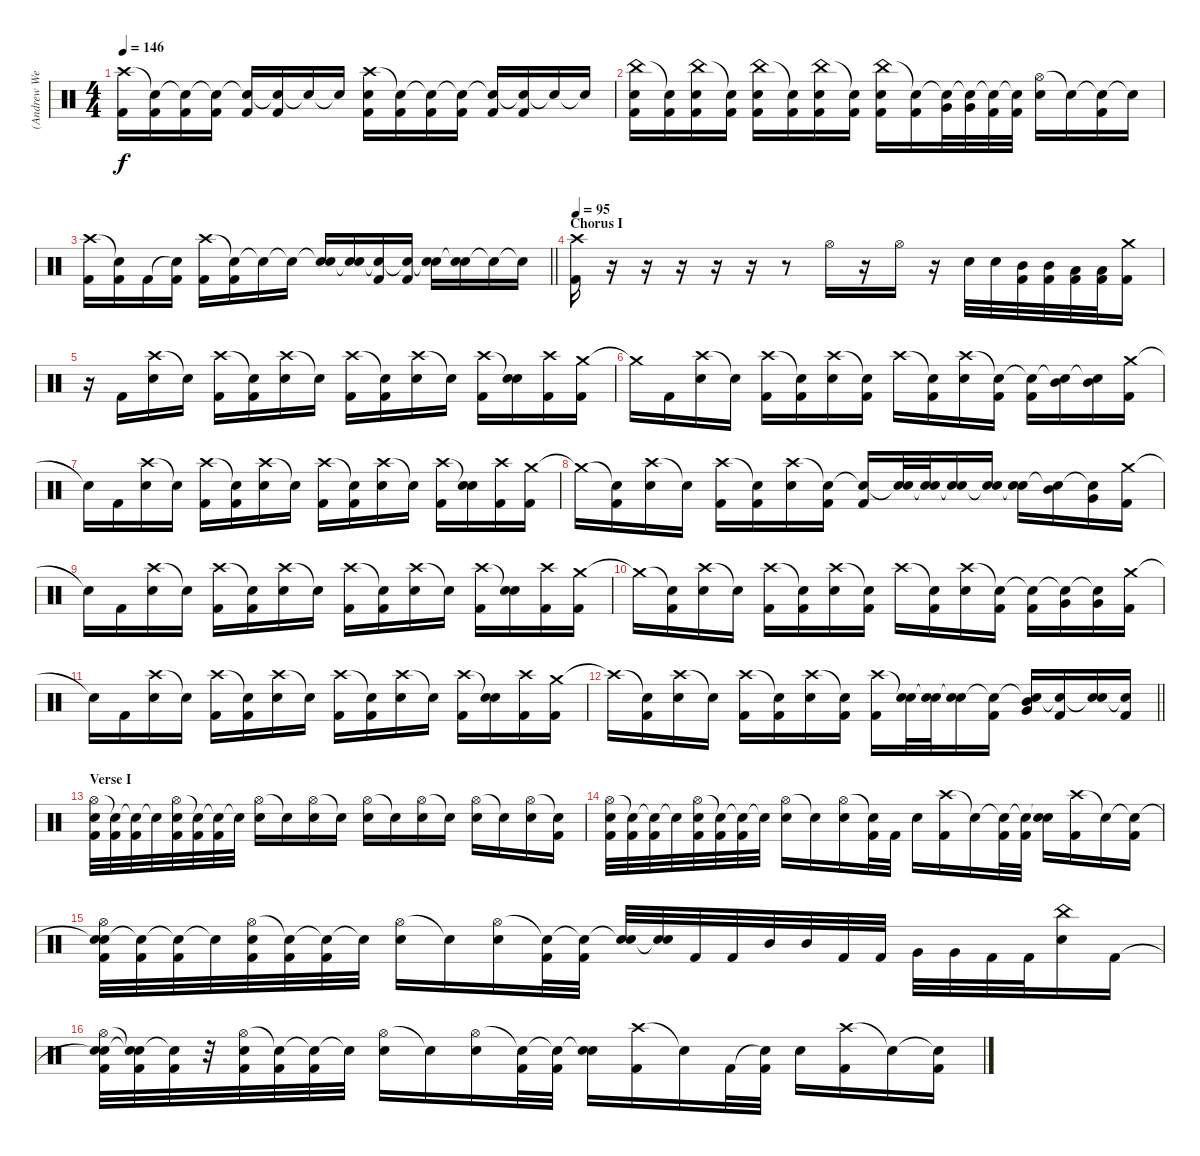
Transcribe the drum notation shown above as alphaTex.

\track ("(Andrew Wetzel) Drums" "(Andrew We") {instrument percussion}
\staff {score}
\articulation defaults
\ts (4 4)
\tempo 146
\clef neutral
\ks c
("Crash high (hit)" "Kick (hit) 2").16{dy f} ("Snare (hit)"{t} "Kick (hit) 2").16 ("Snare (hit)"{t} "Kick (hit) 2").16 ("Snare (hit)"{t} "Kick (hit) 2").16 ("Snare (hit)"{t} "Kick (hit) 2").16 ("Snare (hit)"{t} "Kick (hit) 2").16 "Snare (hit)"{t}.16 "Snare (hit)"{t}.16 ("Crash high (hit)" "Electric Snare (hit)" "Kick (hit) 2").16 ("Snare (hit)"{t} "Kick (hit) 2").16 ("Snare (hit)"{t} "Kick (hit) 2").16 ("Snare (hit)"{t} "Kick (hit) 2").16 ("Snare (hit)"{t} "Kick (hit) 2").16 ("Snare (hit)"{t} "Kick (hit) 2").16 "Snare (hit)"{t}.16 "Snare (hit)"{t}.16 |
("China (hit)" "Electric Snare (hit)" "Kick (hit) 2").16 ("Snare (hit)"{t} "Kick (hit) 2").16 ("China (hit)" "Electric Snare (hit)" "Kick (hit) 2").16 ("Snare (hit)"{t} "Kick (hit) 2").16 ("China (hit)" "Electric Snare (hit)" "Kick (hit) 2").16 ("Snare (hit)"{t} "Kick (hit) 2").16 ("China (hit)" "Electric Snare (hit)" "Kick (hit) 2").16 ("Snare (hit)"{t} "Kick (hit) 2").16 ("China (hit)" "Electric Snare (hit)" "Kick (hit) 2").16 ("Snare (hit)"{t} "Kick (hit) 2").16 ("Snare (hit)"{t} "Very Low Tom (hit)").32 ("Snare (hit)"{t} "Very Low Tom (hit)").32 ("Snare (hit)"{t} "Kick (hit) 2").32 ("Snare (hit)"{t} "Kick (hit) 2").32 ("Hi-Hat (open)" "Electric Snare (hit)").16 "Snare (hit)"{t}.16 ("Snare (hit)"{t} "Kick (hit) 2").16 "Snare (hit)"{t}.16 |
\barLineRight lightlight
("Crash high (hit)" "Kick (hit) 2").16 ("Snare (hit)"{t} "Kick (hit) 2").16 "Kick (hit) 2".16 ("Snare (hit)"{t} "Kick (hit) 2").16 ("Crash high (hit)" "Kick (hit) 2").16 ("Snare (hit)"{t} "Kick (hit) 2").16 "Snare (hit)"{t}.16 "Snare (hit)"{t}.16 ("Snare (hit)"{t} "Electric Snare (hit)").16 ("Snare (hit)"{t} "Electric Snare (hit)").16 ("Snare (hit)"{t} "Kick (hit) 2").16 ("Snare (hit)"{t} "Kick (hit) 2").16 ("Snare (hit)"{t} "Electric Snare (hit)").16 ("Snare (hit)"{t} "Electric Snare (hit)").16 "Snare (hit)"{t}.16 "Snare (hit)"{t}.16 |
\section ("" "Chorus I")
\tempo 95
("Crash high (hit)" "Kick (hit) 2").16 r.16 r.16 r.16 r.16 r.16 r.8 "Hi-Hat (open)".16 r.16 "Hi-Hat (open)".16 r.16 "Electric Snare (hit)".32 "Electric Snare (hit)".32 ("Mid Tom (hit)" "Kick (hit) 2").32 ("Mid Tom (hit)" "Kick (hit) 2").32 ("Low Floor Tom (hit)" "Kick (hit) 2").32 ("Low Floor Tom (hit)" "Kick (hit) 2").32 ("Crash medium (hit)" "Kick (hit) 2").16 |
r.16 "Kick (hit) 2".16 ("Crash high (hit)" "Electric Snare (hit)").16 "Snare (hit)"{t}.16 ("Crash high (hit)" "Kick (hit) 2").16 ("Snare (hit)"{t} "Kick (hit) 2").16 ("Crash high (hit)" "Electric Snare (hit)").16 "Snare (hit)"{t}.16 ("Crash high (hit)" "Kick (hit) 2").16 ("Snare (hit)"{t} "Kick (hit) 2").16 ("Crash high (hit)" "Electric Snare (hit)").16 "Snare (hit)"{t}.16 ("Crash high (hit)" "Kick (hit) 2").16 ("Snare (hit)"{t} "Electric Snare (hit)").16 ("Crash high (hit)" "Kick (hit) 2").16 ("Crash medium (hit)" "Kick (hit) 2").16 |
"Crash medium (hit)"{t}.16 "Kick (hit) 2".16 ("Crash high (hit)" "Electric Snare (hit)").16 "Snare (hit)"{t}.16 ("Crash high (hit)" "Kick (hit) 2").16 ("Snare (hit)"{t} "Kick (hit) 2").16 ("Crash high (hit)" "Electric Snare (hit)").16 ("Snare (hit)"{t} "Kick (hit) 2").16 "Crash high (hit)".16 ("Snare (hit)"{t} "Kick (hit) 2").16 ("Crash high (hit)" "Electric Snare (hit)").16 ("Snare (hit)"{t} "Kick (hit) 2").16 ("Snare (hit)"{t} "Kick (hit) 2").16 ("Snare (hit)"{t} "Mid Tom (hit)").16 ("Snare (hit)"{t} "Mid Tom (hit)").16 ("Crash medium (hit)" "Kick (hit) 2").16 |
"Snare (hit)"{t}.16 "Kick (hit) 2".16 ("Crash high (hit)" "Electric Snare (hit)").16 "Snare (hit)"{t}.16 ("Crash high (hit)" "Kick (hit) 2").16 ("Snare (hit)"{t} "Kick (hit) 2").16 ("Crash high (hit)" "Electric Snare (hit)").16 "Snare (hit)"{t}.16 ("Crash high (hit)" "Kick (hit) 2").16 ("Snare (hit)"{t} "Kick (hit) 2").16 ("Crash high (hit)" "Electric Snare (hit)").16 "Snare (hit)"{t}.16 ("Crash high (hit)" "Kick (hit) 2").16 ("Snare (hit)"{t} "Electric Snare (hit)").16 ("Crash high (hit)" "Kick (hit) 2").16 ("Crash medium (hit)" "Kick (hit) 2").16 |
"Crash medium (hit)"{t}.16 ("Snare (hit)"{t} "Kick (hit) 2").16 ("Crash high (hit)" "Electric Snare (hit)").16 "Snare (hit)"{t}.16 ("Crash high (hit)" "Kick (hit) 2").16 ("Snare (hit)"{t} "Kick (hit) 2").16 ("Crash high (hit)" "Electric Snare (hit)").16 ("Snare (hit)"{t} "Kick (hit) 2").16 ("Snare (hit)"{t} "Kick (hit) 2").16 ("Snare (hit)"{t} "Electric Snare (hit)").32 ("Snare (hit)"{t} "Electric Snare (hit)").32 ("Snare (hit)"{t} "Electric Snare (hit)").16 ("Snare (hit)"{t} "Electric Snare (hit)").16 ("Snare (hit)"{t} "Electric Snare (hit)").16 ("Snare (hit)"{t} "Mid Tom (hit)").16 ("Snare (hit)"{t} "Very Low Tom (hit)").16 ("Crash medium (hit)" "Kick (hit) 2").16 |
"Snare (hit)"{t}.16 "Kick (hit) 2".16 ("Crash high (hit)" "Electric Snare (hit)").16 "Snare (hit)"{t}.16 ("Crash high (hit)" "Kick (hit) 2").16 ("Snare (hit)"{t} "Kick (hit) 2").16 ("Crash high (hit)" "Electric Snare (hit)").16 "Snare (hit)"{t}.16 ("Crash high (hit)" "Kick (hit) 2").16 ("Snare (hit)"{t} "Kick (hit) 2").16 ("Crash high (hit)" "Electric Snare (hit)").16 "Snare (hit)"{t}.16 ("Crash high (hit)" "Kick (hit) 2").16 ("Snare (hit)"{t} "Electric Snare (hit)").16 ("Crash high (hit)" "Kick (hit) 2").16 ("Crash medium (hit)" "Kick (hit) 2").16 |
"Crash medium (hit)"{t}.16 ("Snare (hit)"{t} "Kick (hit) 2").16 ("Crash high (hit)" "Electric Snare (hit)").16 "Snare (hit)"{t}.16 ("Crash high (hit)" "Kick (hit) 2").16 ("Snare (hit)"{t} "Kick (hit) 2").16 ("Crash high (hit)" "Electric Snare (hit)").16 ("Snare (hit)"{t} "Kick (hit) 2").16 "Crash high (hit)".16 ("Snare (hit)"{t} "Kick (hit) 2").16 ("Crash high (hit)" "Electric Snare (hit)").16 ("Snare (hit)"{t} "Kick (hit) 2").16 ("Snare (hit)"{t} "Kick (hit) 2").16 ("Snare (hit)"{t} "Very Low Tom (hit)").16 ("Snare (hit)"{t} "Very Low Tom (hit)").16 ("Crash medium (hit)" "Kick (hit) 2").16 |
"Snare (hit)"{t}.16 "Kick (hit) 2".16 ("Crash high (hit)" "Electric Snare (hit)").16 "Snare (hit)"{t}.16 ("Crash high (hit)" "Kick (hit) 2").16 ("Snare (hit)"{t} "Kick (hit) 2").16 ("Crash high (hit)" "Electric Snare (hit)").16 "Snare (hit)"{t}.16 ("Crash high (hit)" "Kick (hit) 2").16 ("Snare (hit)"{t} "Kick (hit) 2").16 ("Crash high (hit)" "Electric Snare (hit)").16 "Snare (hit)"{t}.16 ("Crash high (hit)" "Kick (hit) 2").16 ("Snare (hit)"{t} "Electric Snare (hit)").16 ("Crash high (hit)" "Kick (hit) 2").16 ("Crash medium (hit)" "Kick (hit) 2").16 |
\barLineRight lightlight "Crash high (hit)"{t}.16
("Snare (hit)"{t} "Kick (hit) 2").16 ("Crash high (hit)" "Electric Snare (hit)").16 "Snare (hit)"{t}.16 ("Crash high (hit)" "Kick (hit) 2").16 ("Snare (hit)"{t} "Kick (hit) 2").16 ("Crash high (hit)" "Electric Snare (hit)").16 ("Snare (hit)"{t} "Kick (hit) 2").16 ("Crash high (hit)" "Kick (hit) 2").16 ("Snare (hit)"{t} "Electric Snare (hit)").32 ("Snare (hit)"{t} "Electric Snare (hit)").32 ("Snare (hit)"{t} "Electric Snare (hit)").16 ("Snare (hit)"{t} "Kick (hit) 2").16 ("Snare (hit)"{t} "Mid Tom (hit)" "Very Low Tom (hit)").16 ("Snare (hit)"{t} "Kick (hit) 2").16 ("Snare (hit)"{t} "Electric Snare (hit)").16 ("Snare (hit)"{t} "Kick (hit) 2").16 |
\section ("" "Verse I")
("Hi-Hat (open)" "Electric Snare (hit)" "Kick (hit) 2").32 ("Snare (hit)"{t} "Kick (hit) 2").32 ("Snare (hit)"{t} "Kick (hit) 2").32 "Snare (hit)"{t}.32 ("Hi-Hat (open)" "Electric Snare (hit)" "Kick (hit) 2").32 ("Snare (hit)"{t} "Kick (hit) 2").32 ("Snare (hit)"{t} "Kick (hit) 2").32 "Snare (hit)"{t}.32 ("Hi-Hat (open)" "Electric Snare (hit)").16 "Snare (hit)"{t}.16 ("Hi-Hat (open)" "Electric Snare (hit)").16 "Snare (hit)"{t}.16 ("Hi-Hat (open)" "Electric Snare (hit)").16 "Snare (hit)"{t}.16 ("Hi-Hat (open)" "Electric Snare (hit)").16 "Snare (hit)"{t}.16 ("Hi-Hat (open)" "Electric Snare (hit)").16 "Snare (hit)"{t}.16 ("Hi-Hat (open)" "Electric Snare (hit)").16 ("Snare (hit)"{t} "Kick (hit) 2").16 |
("Hi-Hat (open)" "Electric Snare (hit)" "Kick (hit) 2").32 ("Snare (hit)"{t} "Kick (hit) 2").32 ("Snare (hit)"{t} "Kick (hit) 2").32 "Snare (hit)"{t}.32 ("Hi-Hat (open)" "Electric Snare (hit)" "Kick (hit) 2").32 ("Snare (hit)"{t} "Kick (hit) 2").32 ("Snare (hit)"{t} "Kick (hit) 2").32 "Snare (hit)"{t}.32 ("Hi-Hat (open)" "Electric Snare (hit)").16 "Snare (hit)"{t}.16 ("Hi-Hat (open)" "Electric Snare (hit)").16 ("Snare (hit)"{t} "Kick (hit) 2").32 "Kick (hit) 2".32 "Electric Snare (hit)".16 ("Crash high (hit)" "Kick (hit) 2").16 "Snare (hit)"{t}.16 ("Snare (hit)"{t} "Kick (hit) 2").32 ("Snare (hit)"{t} "Kick (hit) 2").32 ("Snare (hit)"{t} "Electric Snare (hit)").16 ("Crash high (hit)" "Kick (hit) 2").16 "Snare (hit)"{t}.16 ("Snare (hit)"{t} "Kick (hit) 2").16 |
("Snare (hit)"{t} "Hi-Hat (open)" "Electric Snare (hit)" "Kick (hit) 2").32 ("Snare (hit)"{t} "Kick (hit) 2").32 ("Snare (hit)"{t} "Kick (hit) 2").32 "Snare (hit)"{t}.32 ("Hi-Hat (open)" "Electric Snare (hit)" "Kick (hit) 2").32 ("Snare (hit)"{t} "Kick (hit) 2").32 ("Snare (hit)"{t} "Kick (hit) 2").32 "Snare (hit)"{t}.32 ("Hi-Hat (open)" "Electric Snare (hit)").16 "Snare (hit)"{t}.16 ("Hi-Hat (open)" "Electric Snare (hit)").16 ("Snare (hit)"{t} "Kick (hit) 2").32 ("Snare (hit)"{t} "Kick (hit) 2").32 ("Snare (hit)"{t} "Electric Snare (hit)").32 ("Snare (hit)"{t} "Electric Snare (hit)").32 "Kick (hit) 2".32 "Kick (hit) 2".32 "Mid Tom (hit)".32 "Mid Tom (hit)".32 "Kick (hit) 2".32 "Kick (hit) 2".32 "Very Low Tom (hit)".32 "Very Low Tom (hit)".32 "Kick (hit) 2".32 "Kick (hit) 2".32 ("China (hit)" "Electric Snare (hit)").16 "Kick (hit) 2".16 |
("Snare (hit)"{t} "Hi-Hat (open)" "Electric Snare (hit)" "Kick (hit) 2").32 ("Snare (hit)"{t} "Snare (hit)"{t} "Kick (hit) 2").32 ("Snare (hit)"{t} "Kick (hit) 2").32 r.32 ("Hi-Hat (open)" "Electric Snare (hit)" "Kick (hit) 2").32 ("Snare (hit)"{t} "Kick (hit) 2").32 ("Snare (hit)"{t} "Kick (hit) 2").32 "Snare (hit)"{t}.32 ("Hi-Hat (open)" "Electric Snare (hit)").16 "Snare (hit)"{t}.16 ("Hi-Hat (open)" "Electric Snare (hit)").16 ("Snare (hit)"{t} "Kick (hit) 2").32 ("Snare (hit)"{t} "Kick (hit) 2").32 ("Snare (hit)"{t} "Electric Snare (hit)").16 ("Crash high (hit)" "Kick (hit) 2").16 "Snare (hit)"{t}.16 "Kick (hit) 2".32 ("Snare (hit)"{t} "Kick (hit) 2").32 "Electric Snare (hit)".16 ("Crash high (hit)" "Kick (hit) 2").16 "Snare (hit)"{t}.16 ("Snare (hit)"{t} "Kick (hit) 2").16
